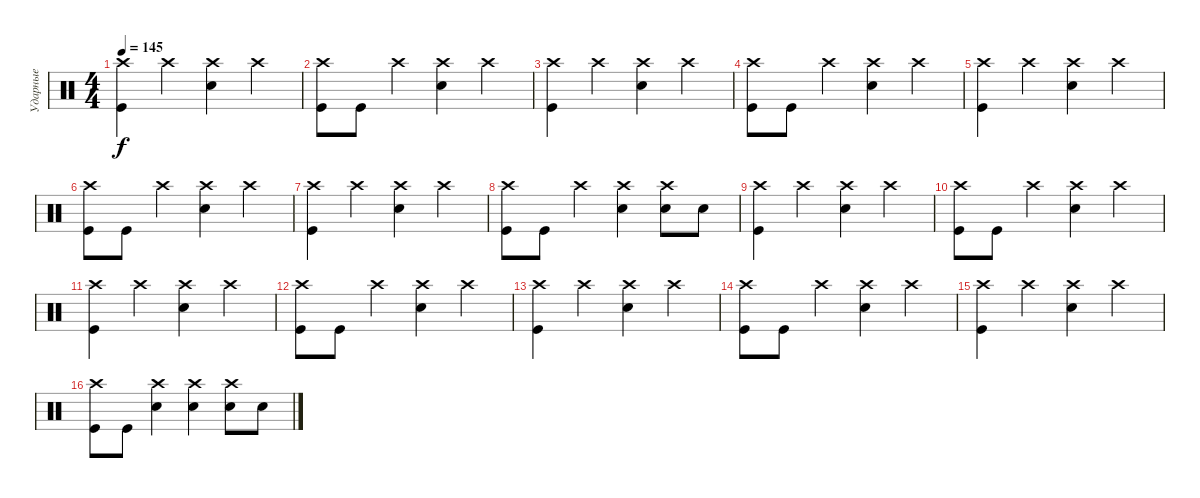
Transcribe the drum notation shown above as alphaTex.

\track ("Ударные" "Ударные") {instrument percussion}
\staff {score}
\articulation defaults
\ts (4 4)
\tempo 145
\clef neutral
\ks c
("Crash high (hit)" "Kick (hit)").4{dy f} "Crash high (hit)".4 ("Crash high (hit)" "Snare (hit) 2").4 "Crash high (hit)".4 |
("Crash high (hit)" "Kick (hit)").8 "Kick (hit)".8 "Crash high (hit)".4 ("Crash high (hit)" "Snare (hit) 2").4 "Crash high (hit)".4 |
("Crash high (hit)" "Kick (hit)").4 "Crash high (hit)".4 ("Crash high (hit)" "Snare (hit) 2").4 "Crash high (hit)".4 |
("Crash high (hit)" "Kick (hit)").8 "Kick (hit)".8 "Crash high (hit)".4 ("Crash high (hit)" "Snare (hit) 2").4 "Crash high (hit)".4 |
("Crash high (hit)" "Kick (hit)").4 "Crash high (hit)".4 ("Crash high (hit)" "Snare (hit) 2").4 "Crash high (hit)".4 |
("Crash high (hit)" "Kick (hit)").8 "Kick (hit)".8 "Crash high (hit)".4 ("Crash high (hit)" "Snare (hit) 2").4 "Crash high (hit)".4 |
("Crash high (hit)" "Kick (hit)").4 "Crash high (hit)".4 ("Crash high (hit)" "Snare (hit) 2").4 "Crash high (hit)".4 |
("Crash high (hit)" "Kick (hit)").8 "Kick (hit)".8 "Crash high (hit)".4 ("Crash high (hit)" "Snare (hit) 2").4 ("Snare (hit) 2" "Crash high (hit)").8 "Snare (hit) 2".8 |
("Crash high (hit)" "Kick (hit)").4 "Crash high (hit)".4 ("Crash high (hit)" "Snare (hit) 2").4 "Crash high (hit)".4 |
("Crash high (hit)" "Kick (hit)").8 "Kick (hit)".8 "Crash high (hit)".4 ("Crash high (hit)" "Snare (hit) 2").4 "Crash high (hit)".4 |
("Crash high (hit)" "Kick (hit)").4 "Crash high (hit)".4 ("Crash high (hit)" "Snare (hit) 2").4 "Crash high (hit)".4 |
("Crash high (hit)" "Kick (hit)").8 "Kick (hit)".8 "Crash high (hit)".4 ("Crash high (hit)" "Snare (hit) 2").4 "Crash high (hit)".4 |
("Crash high (hit)" "Kick (hit)").4 "Crash high (hit)".4 ("Crash high (hit)" "Snare (hit) 2").4 "Crash high (hit)".4 |
("Crash high (hit)" "Kick (hit)").8 "Kick (hit)".8 "Crash high (hit)".4 ("Crash high (hit)" "Snare (hit) 2").4 "Crash high (hit)".4 |
("Crash high (hit)" "Kick (hit)").4 "Crash high (hit)".4 ("Crash high (hit)" "Snare (hit) 2").4 "Crash high (hit)".4 |
("Crash high (hit)" "Kick (hit)").8 "Kick (hit)".8 ("Snare (hit) 2" "Crash high (hit)").4 ("Crash high (hit)" "Snare (hit) 2").4 ("Snare (hit) 2" "Crash high (hit)").8 "Snare (hit) 2".8
